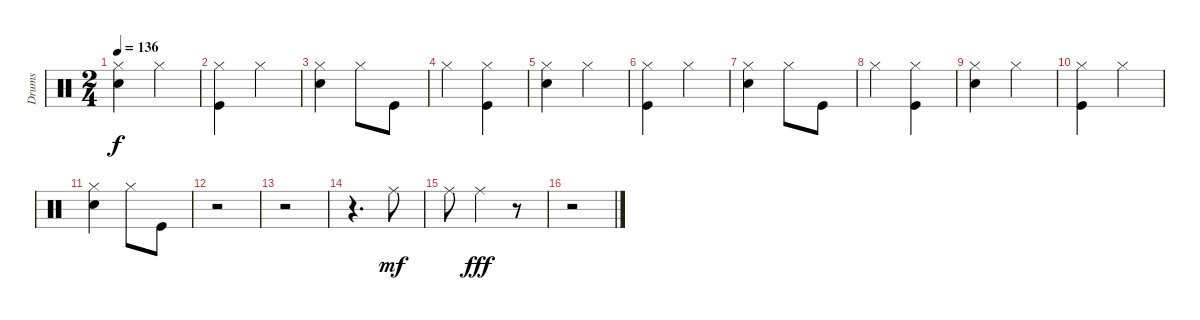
\track ("Drums" "Drums") {instrument percussion}
\staff {score}
\articulation defaults
\ts (2 4)
\tempo 136
\clef neutral
\ks c
("Hi-Hat (closed)" "Snare (hit) 2").4{dy f} "Hi-Hat (closed)".4 |
("Kick (hit)" "Hi-Hat (closed)").4 "Hi-Hat (closed)".4 |
("Snare (hit) 2" "Hi-Hat (closed)").4 "Hi-Hat (closed)".8 "Kick (hit)".8 |
"Hi-Hat (closed)".4 ("Kick (hit)" "Hi-Hat (closed)").4 |
("Hi-Hat (closed)" "Snare (hit) 2").4 "Hi-Hat (closed)".4 |
("Kick (hit)" "Hi-Hat (closed)").4 "Hi-Hat (closed)".4 |
("Snare (hit) 2" "Hi-Hat (closed)").4 "Hi-Hat (closed)".8 "Kick (hit)".8 |
"Hi-Hat (closed)".4 ("Kick (hit)" "Hi-Hat (closed)").4 |
("Hi-Hat (closed)" "Snare (hit) 2").4 "Hi-Hat (closed)".4 |
("Kick (hit)" "Hi-Hat (closed)").4 "Hi-Hat (closed)".4 |
("Snare (hit) 2" "Hi-Hat (closed)").4 "Hi-Hat (closed)".8 "Kick (hit)".8 |
r.2 |
r.2 |
r.4{d} "Ride (middle)".8{dy mf} |
"Ride (middle)".8 "Ride (middle)".4{dy fff} r.8 |
r.2
